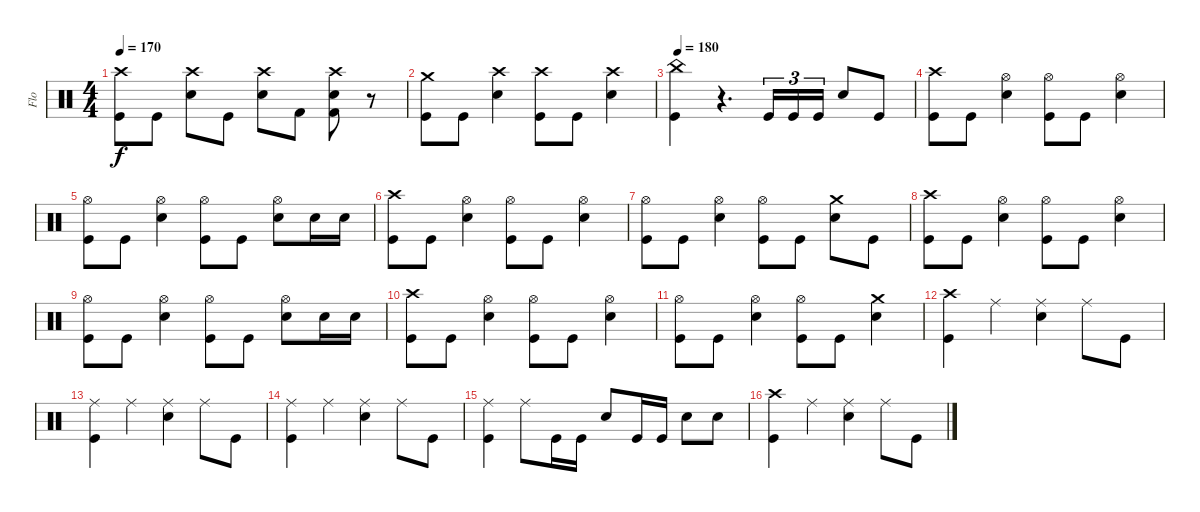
\track ("Flo" "Flo") {instrument percussion}
\staff {score}
\articulation defaults
\ts (4 4)
\tempo 170
\clef neutral
\ks c
("Crash high (hit)" "Kick (hit)").8{dy f} "Kick (hit)".8 ("Crash high (hit)" "Electric Snare (hit)").8 "Kick (hit)".8 ("Crash high (hit)" "Electric Snare (hit)").8 "Kick (hit) 2".8 ("Crash high (hit)" "Electric Snare (hit)" "Kick (hit) 2").8 r.8 |
("Crash medium (hit)" "Kick (hit)").8 "Kick (hit)".8 ("Crash high (hit)" "Snare (hit) 2").4 ("Crash high (hit)" "Kick (hit)").8 "Kick (hit)".8 ("Crash high (hit)" "Snare (hit) 2").4 |
\tempo 180
("China (hit)" "Kick (hit)").4 r.4{d} "Kick (hit)".16{tu (3 2)} "Kick (hit)".16{tu (3 2)} "Kick (hit)".16{tu (3 2)} "Snare (hit) 2".8 "Kick (hit)".8 |
("Crash high (hit)" "Kick (hit)").8 "Kick (hit)".8 ("Hi-Hat (open)" "Snare (hit) 2").4 ("Hi-Hat (open)" "Kick (hit)").8 "Kick (hit)".8 ("Hi-Hat (open)" "Snare (hit) 2").4 |
("Hi-Hat (open)" "Kick (hit)").8 "Kick (hit)".8 ("Hi-Hat (open)" "Snare (hit) 2").4 ("Hi-Hat (open)" "Kick (hit)").8 "Kick (hit)".8 ("Hi-Hat (open)" "Snare (hit) 2").8 "Snare (hit) 2".16 "Snare (hit) 2".16 |
("Crash high (hit)" "Kick (hit)").8 "Kick (hit)".8 ("Hi-Hat (open)" "Snare (hit) 2").4 ("Hi-Hat (open)" "Kick (hit)").8 "Kick (hit)".8 ("Hi-Hat (open)" "Snare (hit) 2").4 |
("Hi-Hat (open)" "Kick (hit)").8 "Kick (hit)".8 ("Hi-Hat (open)" "Snare (hit) 2").4 ("Hi-Hat (open)" "Kick (hit)").8 "Kick (hit)".8 ("Crash medium (hit)" "Snare (hit) 2").8 "Kick (hit)".8 |
("Crash high (hit)" "Kick (hit)").8 "Kick (hit)".8 ("Hi-Hat (open)" "Snare (hit) 2").4 ("Hi-Hat (open)" "Kick (hit)").8 "Kick (hit)".8 ("Hi-Hat (open)" "Snare (hit) 2").4 |
("Hi-Hat (open)" "Kick (hit)").8 "Kick (hit)".8 ("Hi-Hat (open)" "Snare (hit) 2").4 ("Hi-Hat (open)" "Kick (hit)").8 "Kick (hit)".8 ("Hi-Hat (open)" "Snare (hit) 2").8 "Snare (hit) 2".16 "Snare (hit) 2".16 |
("Crash high (hit)" "Kick (hit)").8 "Kick (hit)".8 ("Hi-Hat (open)" "Snare (hit) 2").4 ("Hi-Hat (open)" "Kick (hit)").8 "Kick (hit)".8 ("Hi-Hat (open)" "Snare (hit) 2").4 |
("Hi-Hat (open)" "Kick (hit)").8 "Kick (hit)".8 ("Hi-Hat (open)" "Snare (hit) 2").4 ("Hi-Hat (open)" "Kick (hit)").8 "Kick (hit)".8 ("Crash medium (hit)" "Snare (hit) 2").4 |
("Crash high (hit)" "Kick (hit)").4 "Ride (middle)".4 ("Ride (middle)" "Snare (hit) 2").4 "Ride (middle)".8 "Kick (hit)".8 |
("Ride (middle)" "Kick (hit)").4 "Ride (middle)".4 ("Ride (middle)" "Snare (hit) 2").4 "Ride (middle)".8 "Kick (hit)".8 |
("Ride (middle)" "Kick (hit)").4 "Ride (middle)".4 ("Ride (middle)" "Snare (hit) 2").4 "Ride (middle)".8 "Kick (hit)".8 |
("Ride (middle)" "Kick (hit)").4 "Ride (middle)".8 "Kick (hit)".16 "Kick (hit)".16 "Snare (hit) 2".8 "Kick (hit)".16 "Kick (hit)".16 "Snare (hit) 2".8 "Snare (hit) 2".8 |
("Crash high (hit)" "Kick (hit)").4 "Ride (middle)".4 ("Ride (middle)" "Snare (hit) 2").4 "Ride (middle)".8 "Kick (hit)".8
